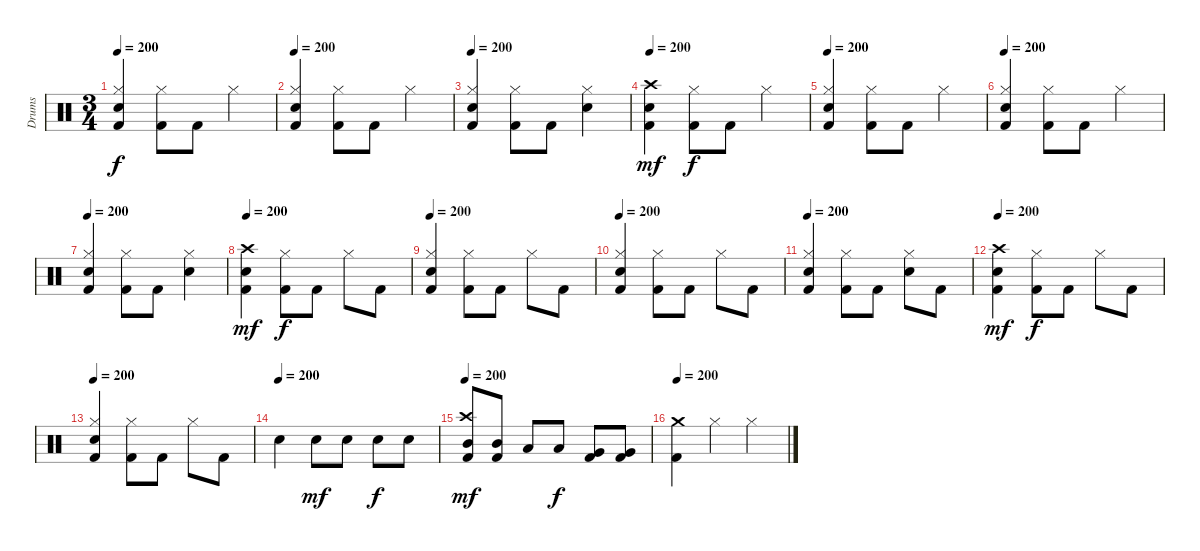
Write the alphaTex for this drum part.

\track ("Drums" "Drums") {instrument percussion}
\staff {score}
\articulation defaults
\ts (3 4)
\tempo 200
\clef neutral
\ks c
("Electric Snare (hit)" "Hi-Hat (closed)" "Kick (hit) 2").4{dy f} ("Hi-Hat (closed)" "Kick (hit) 2").8 "Kick (hit) 2".8 "Hi-Hat (closed)".4 |
\tempo 200
("Electric Snare (hit)" "Hi-Hat (closed)" "Kick (hit) 2").4 ("Hi-Hat (closed)" "Kick (hit) 2").8 "Kick (hit) 2".8 "Hi-Hat (closed)".4 |
\tempo 200
("Electric Snare (hit)" "Hi-Hat (closed)" "Kick (hit) 2").4 ("Hi-Hat (closed)" "Kick (hit) 2").8 "Kick (hit) 2".8 ("Electric Snare (hit)" "Hi-Hat (closed)").4 |
\tempo 200
("Crash high (hit)" "Electric Snare (hit)" "Kick (hit) 2").4{dy mf} ("Hi-Hat (closed)" "Kick (hit) 2").8{dy f} "Kick (hit) 2".8 "Hi-Hat (closed)".4 |
\tempo 200
("Electric Snare (hit)" "Hi-Hat (closed)" "Kick (hit) 2").4 ("Hi-Hat (closed)" "Kick (hit) 2").8 "Kick (hit) 2".8 "Hi-Hat (closed)".4 |
\tempo 200
("Electric Snare (hit)" "Hi-Hat (closed)" "Kick (hit) 2").4 ("Hi-Hat (closed)" "Kick (hit) 2").8 "Kick (hit) 2".8 "Hi-Hat (closed)".4 |
\tempo 200
("Electric Snare (hit)" "Hi-Hat (closed)" "Kick (hit) 2").4 ("Hi-Hat (closed)" "Kick (hit) 2").8 "Kick (hit) 2".8 ("Electric Snare (hit)" "Hi-Hat (closed)").4 |
\tempo 200
("Crash high (hit)" "Electric Snare (hit)" "Kick (hit) 2").4{dy mf} ("Hi-Hat (closed)" "Kick (hit) 2").8{dy f} "Kick (hit) 2".8 "Hi-Hat (closed)".8 "Kick (hit) 2".8 |
\tempo 200
("Electric Snare (hit)" "Hi-Hat (closed)" "Kick (hit) 2").4 ("Hi-Hat (closed)" "Kick (hit) 2").8 "Kick (hit) 2".8 "Hi-Hat (closed)".8 "Kick (hit) 2".8 |
\tempo 200
("Electric Snare (hit)" "Hi-Hat (closed)" "Kick (hit) 2").4 ("Hi-Hat (closed)" "Kick (hit) 2").8 "Kick (hit) 2".8 "Hi-Hat (closed)".8 "Kick (hit) 2".8 |
\tempo 200
("Electric Snare (hit)" "Hi-Hat (closed)" "Kick (hit) 2").4 ("Hi-Hat (closed)" "Kick (hit) 2").8 "Kick (hit) 2".8 ("Electric Snare (hit)" "Hi-Hat (closed)").8 "Kick (hit) 2".8 |
\tempo 200
("Crash high (hit)" "Electric Snare (hit)" "Kick (hit) 2").4{dy mf} ("Hi-Hat (closed)" "Kick (hit) 2").8{dy f} "Kick (hit) 2".8 "Hi-Hat (closed)".8 "Kick (hit) 2".8 |
\tempo 200
("Electric Snare (hit)" "Hi-Hat (closed)" "Kick (hit) 2").4 ("Hi-Hat (closed)" "Kick (hit) 2").8 "Kick (hit) 2".8 "Hi-Hat (closed)".8 "Kick (hit) 2".8 |
\tempo (200)
"Electric Snare (hit)".4 "Electric Snare (hit)".8{dy mf} "Electric Snare (hit)".8 "Electric Snare (hit)".8{dy f} "Electric Snare (hit)".8 |
\tempo 200
("Crash high (hit)" "Mid Tom (hit)" "Kick (hit) 2").8{dy mf} ("Mid Tom (hit)" "Kick (hit) 2").8 "Low Tom (hit)".8 "Low Tom (hit)".8{dy f} ("Very Low Tom (hit)" "Kick (hit) 2").8 ("Very Low Tom (hit)" "Kick (hit) 2").8 |
\tempo 200
("Crash medium (hit)" "Kick (hit) 2").4 "Hi-Hat (closed)".4 "Hi-Hat (closed)".4
